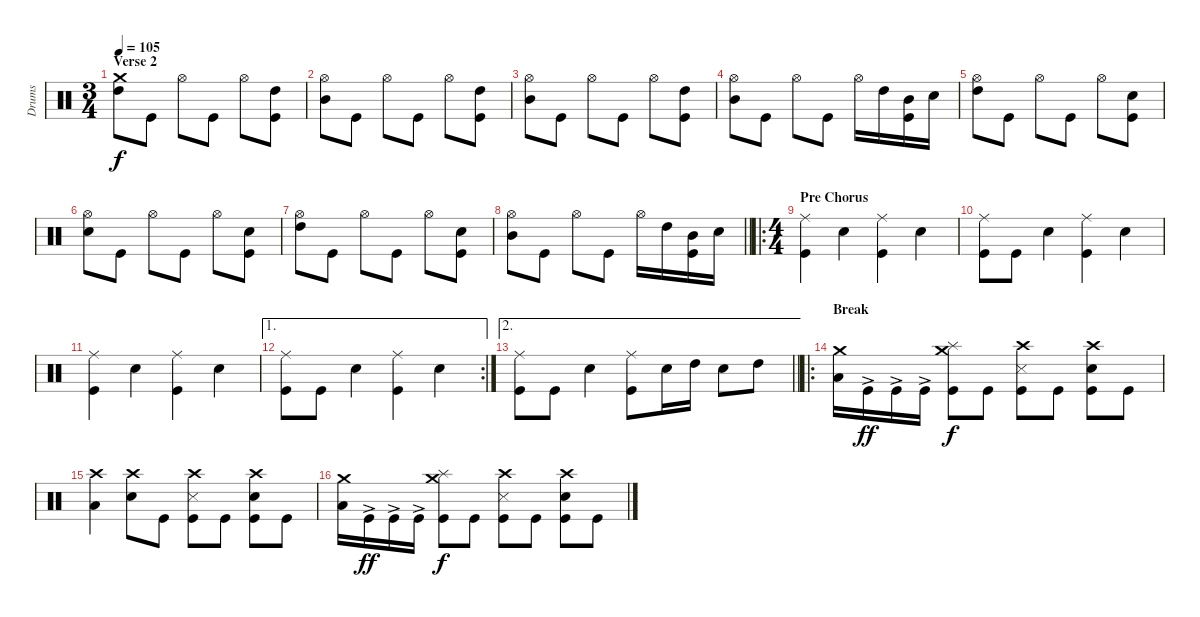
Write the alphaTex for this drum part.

\track ("Drums" "Drums") {instrument percussion}
\staff {score}
\articulation defaults
\ts (3 4)
\section ("" "Verse 2")
\tempo 105
\clef neutral
\ks c
("High Tom (hit)" "Crash medium (hit)").8{dy f} "Kick (hit)".8 "Hi-Hat (open)".8 "Kick (hit)".8 "Hi-Hat (open)".8 ("High Tom (hit)" "Kick (hit)").8 |
("Hi-Hat (open)" "Mid Tom (hit)").8 "Kick (hit)".8 "Hi-Hat (open)".8 "Kick (hit)".8 "Hi-Hat (open)".8 ("High Tom (hit)" "Kick (hit)").8 |
("Hi-Hat (open)" "Mid Tom (hit)").8 "Kick (hit)".8 "Hi-Hat (open)".8 "Kick (hit)".8 "Hi-Hat (open)".8 ("Kick (hit)" "High Tom (hit)").8 |
("Hi-Hat (open)" "Mid Tom (hit)").8 "Kick (hit)".8 "Hi-Hat (open)".8 "Kick (hit)".8 "Hi-Hat (open)".16 "High Tom (hit)".16 ("Kick (hit)" "Mid Tom (hit)").16 "Snare (hit) 2".16 |
("High Tom (hit)" "Hi-Hat (open)").8 "Kick (hit)".8 "Hi-Hat (open)".8 "Kick (hit)".8 "Hi-Hat (open)".8 ("Snare (hit) 2" "Kick (hit)").8 |
("Hi-Hat (open)" "Snare (hit) 2").8 "Kick (hit)".8 "Hi-Hat (open)".8 "Kick (hit)".8 "Hi-Hat (open)".8 ("Snare (hit) 2" "Kick (hit)").8 |
("Hi-Hat (open)" "High Tom (hit)").8 "Kick (hit)".8 "Hi-Hat (open)".8 "Kick (hit)".8 "Hi-Hat (open)".8 ("Snare (hit) 2" "Kick (hit)").8 |
\barLineRight lightlight
("Hi-Hat (open)" "Mid Tom (hit)").8 "Kick (hit)".8 "Hi-Hat (open)".8 "Kick (hit)".8 "Hi-Hat (open)".16 "High Tom (hit)".16 ("Kick (hit)" "Mid Tom (hit)").16 "Snare (hit) 2".16 |
\ro
\ts (4 4)
\section ("" "Pre Chorus")
("Kick (hit)" "Ride (middle)").4 "Snare (hit) 2".4 ("Kick (hit)" "Ride (middle)").4 "Snare (hit) 2".4 |
("Kick (hit)" "Ride (middle)").8 "Kick (hit)".8 "Snare (hit) 2".4 ("Kick (hit)" "Ride (middle)").4 "Snare (hit) 2".4 |
("Kick (hit)" "Ride (middle)").4 "Snare (hit) 2".4 ("Kick (hit)" "Ride (middle)").4 "Snare (hit) 2".4 |
\ae 1
\rc 2
("Kick (hit)" "Ride (middle)").8 "Kick (hit)".8 "Snare (hit) 2".4 ("Kick (hit)" "Ride (middle)").4 "Snare (hit) 2".4 |
\ae 2
\barLineRight lightlight
("Kick (hit)" "Ride (middle)").8 "Kick (hit)".8 "Snare (hit) 2".4 ("Kick (hit)" "Ride (middle)").8 "Snare (hit) 2".16 "High Tom (hit)".16 "Snare (hit) 2".8 "High Tom (hit)".8 |
\ro
\section ("" "Break")
("Low Floor Tom (hit)" "Crash medium (hit)").16 "Kick (hit)"{ac}.16{dy ff} "Kick (hit)"{ac}.16 "Kick (hit)"{ac}.16 ("Crash medium (hit)" "Splash (hit)" "Kick (hit)").8{dy f} "Kick (hit)".8 ("Snare (side stick) 3" "Kick (hit)" "Crash high (hit)").8 "Kick (hit)".8 ("Snare (hit) 2" "Kick (hit)" "Crash high (hit)").8 "Kick (hit)".8 |
("Low Floor Tom (hit)" "Crash high (hit)").4 ("Snare (hit) 2" "Crash high (hit)").8 "Kick (hit)".8 ("Snare (side stick) 3" "Kick (hit)" "Crash high (hit)").8 "Kick (hit)".8 ("Snare (hit) 2" "Kick (hit)" "Crash high (hit)").8 "Kick (hit)".8 |
("Low Floor Tom (hit)" "Crash medium (hit)").16 "Kick (hit)"{ac}.16{dy ff} "Kick (hit)"{ac}.16 "Kick (hit)"{ac}.16 ("Crash medium (hit)" "Splash (hit)" "Kick (hit)").8{dy f} "Kick (hit)".8 ("Snare (side stick) 3" "Kick (hit)" "Crash high (hit)").8 "Kick (hit)".8 ("Snare (hit) 2" "Kick (hit)" "Crash high (hit)").8 "Kick (hit)".8
